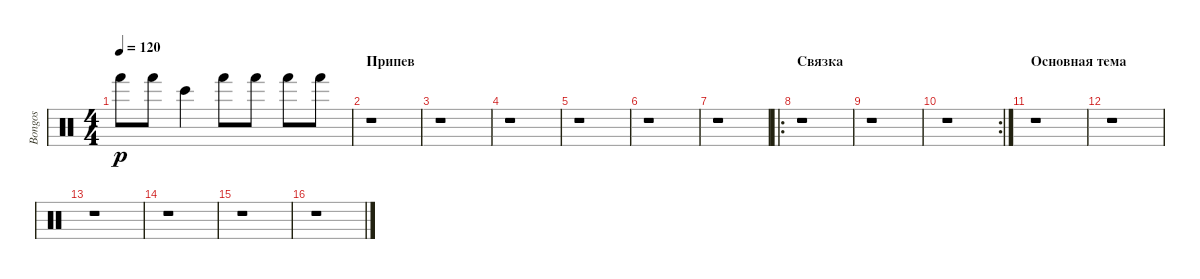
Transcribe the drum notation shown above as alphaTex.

\track ("Bongos" "Bongos") {instrument percussion}
\staff {score}
\articulation defaults
\ts (4 4)
\tempo 120
\clef neutral
\ks c "Hand (hit)".8{dy p} "Hand (hit)".8 "Bongo High (hit)".4 "Hand (hit)".8 "Hand (hit)".8 "Hand (hit)".8 "Hand (hit)".8
|
\section ("" "Припев")
r.1 |
r.1 |
r.1 |
r.1 |
r.1 |
r.1 |
\ro
\section ("" "Связка")
r.1 |
r.1 |
\rc 2
r.1 |
\section ("" "Основная тема")
r.1 |
r.1 |
r.1 |
r.1 |
r.1 |
r.1
